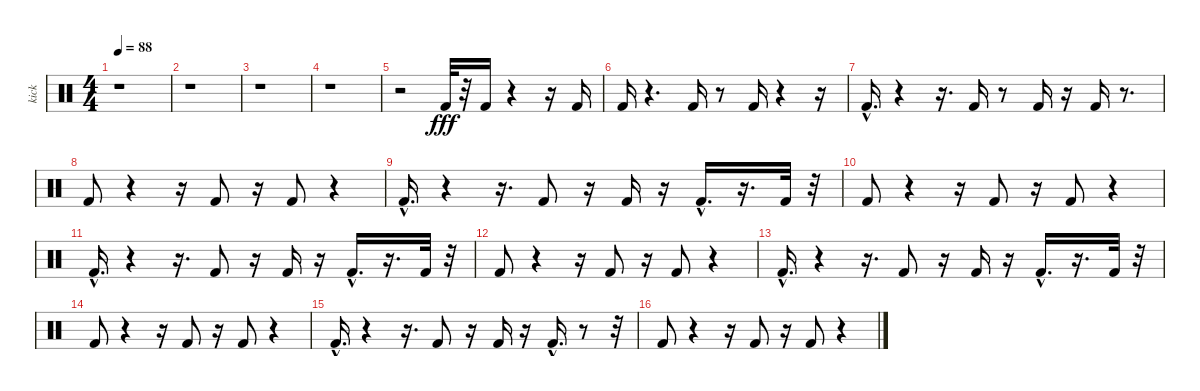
\track ("kick" "kick") {instrument percussion}
\staff {score}
\articulation defaults
\ts (4 4)
\tempo 88
\clef neutral
\ks c
r.1{dy fff} |
r.1 |
r.1 |
r.1 |
r.2 "Kick (hit) 2".32 r.32 "Kick (hit) 2".16 r.4 r.16 "Kick (hit) 2".16 |
"Kick (hit) 2".16 r.4{d} "Kick (hit) 2".16 r.8 "Kick (hit) 2".16 r.4 r.16 |
"Kick (hit) 2"{hac}.16{d} r.4 r.16{d} "Kick (hit) 2".16 r.8 "Kick (hit) 2".16 r.16 "Kick (hit) 2".16 r.8{d} |
"Kick (hit) 2".8 r.4 r.16 "Kick (hit) 2".8 r.16 "Kick (hit) 2".8 r.4 |
"Kick (hit) 2"{hac}.16{d} r.4 r.16{d} "Kick (hit) 2".8 r.16 "Kick (hit) 2".16 r.16 "Kick (hit) 2"{hac}.16{d} r.16{d} "Kick (hit) 2".32 r.32 |
"Kick (hit) 2".8 r.4 r.16 "Kick (hit) 2".8 r.16 "Kick (hit) 2".8 r.4 |
"Kick (hit) 2"{hac}.16{d} r.4 r.16{d} "Kick (hit) 2".8 r.16 "Kick (hit) 2".16 r.16 "Kick (hit) 2"{hac}.16{d} r.16{d} "Kick (hit) 2".32 r.32 |
"Kick (hit) 2".8 r.4 r.16 "Kick (hit) 2".8 r.16 "Kick (hit) 2".8 r.4 |
"Kick (hit) 2"{hac}.16{d} r.4 r.16{d} "Kick (hit) 2".8 r.16 "Kick (hit) 2".16 r.16 "Kick (hit) 2"{hac}.16{d} r.16{d} "Kick (hit) 2".32 r.32 |
"Kick (hit) 2".8 r.4 r.16 "Kick (hit) 2".8 r.16 "Kick (hit) 2".8 r.4 |
"Kick (hit) 2"{hac}.16{d} r.4 r.16{d} "Kick (hit) 2".8 r.16 "Kick (hit) 2".16 r.16 "Kick (hit) 2"{hac}.16{d} r.8 r.32 |
"Kick (hit) 2".8 r.4 r.16 "Kick (hit) 2".8 r.16 "Kick (hit) 2".8 r.4
